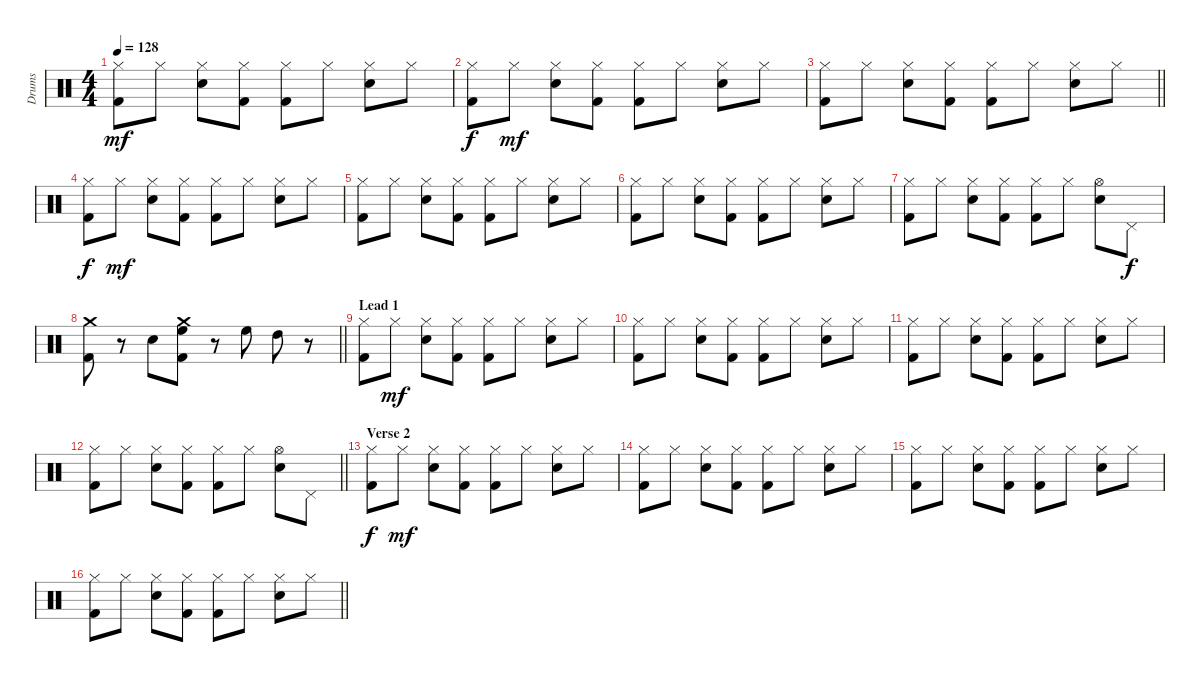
\track ("Drums" "Drums") {instrument percussion}
\staff {score}
\articulation defaults
\ts (4 4)
\tempo 128
\clef neutral
\ks c
("Hi-Hat (closed)" "Kick (hit) 2").8{dy mf} "Hi-Hat (closed)".8 ("Hi-Hat (closed)" "Snare (hit) 2").8 ("Hi-Hat (closed)" "Kick (hit) 2").8 ("Hi-Hat (closed)" "Kick (hit) 2").8 "Hi-Hat (closed)".8 ("Hi-Hat (closed)" "Snare (hit) 2").8 "Hi-Hat (closed)".8 |
("Hi-Hat (closed)" "Kick (hit) 2").8{dy f} "Hi-Hat (closed)".8{dy mf} ("Hi-Hat (closed)" "Snare (hit) 2").8 ("Hi-Hat (closed)" "Kick (hit) 2").8 ("Hi-Hat (closed)" "Kick (hit) 2").8 "Hi-Hat (closed)".8 ("Hi-Hat (closed)" "Snare (hit) 2").8 "Hi-Hat (closed)".8 |
\barLineRight lightlight
("Hi-Hat (closed)" "Kick (hit) 2").8 "Hi-Hat (closed)".8 ("Hi-Hat (closed)" "Snare (hit) 2").8 ("Hi-Hat (closed)" "Kick (hit) 2").8 ("Hi-Hat (closed)" "Kick (hit) 2").8 "Hi-Hat (closed)".8 ("Hi-Hat (closed)" "Snare (hit) 2").8 "Hi-Hat (closed)".8 |
("Hi-Hat (closed)" "Kick (hit) 2").8{dy f} "Hi-Hat (closed)".8{dy mf} ("Hi-Hat (closed)" "Snare (hit) 2").8 ("Hi-Hat (closed)" "Kick (hit) 2").8 ("Hi-Hat (closed)" "Kick (hit) 2").8 "Hi-Hat (closed)".8 ("Hi-Hat (closed)" "Snare (hit) 2").8 "Hi-Hat (closed)".8 |
("Hi-Hat (closed)" "Kick (hit) 2").8 "Hi-Hat (closed)".8 ("Hi-Hat (closed)" "Snare (hit) 2").8 ("Hi-Hat (closed)" "Kick (hit) 2").8 ("Hi-Hat (closed)" "Kick (hit) 2").8 "Hi-Hat (closed)".8 ("Hi-Hat (closed)" "Snare (hit) 2").8 "Hi-Hat (closed)".8 |
("Hi-Hat (closed)" "Kick (hit) 2").8 "Hi-Hat (closed)".8 ("Hi-Hat (closed)" "Snare (hit) 2").8 ("Hi-Hat (closed)" "Kick (hit) 2").8 ("Hi-Hat (closed)" "Kick (hit) 2").8 "Hi-Hat (closed)".8 ("Hi-Hat (closed)" "Snare (hit) 2").8 "Hi-Hat (closed)".8 |
("Hi-Hat (closed)" "Kick (hit) 2").8 "Hi-Hat (closed)".8 ("Hi-Hat (closed)" "Snare (hit) 2").8 ("Hi-Hat (closed)" "Kick (hit) 2").8 ("Hi-Hat (closed)" "Kick (hit) 2").8 "Hi-Hat (closed)".8 ("Hi-Hat (open)" "Snare (hit) 2").8 "Pedal Hi-Hat (hit)".8{dy f} |
\barLineRight lightlight
("Crash medium (hit)" "Kick (hit) 2").8 r.8 "Snare (hit) 2".8 ("Crash medium (hit)" "High Floor Tom (hit)" "Kick (hit) 2").8 r.8 "High Floor Tom (hit)".8 "High Tom (hit)".8 r.8 |
\section ("" "Lead 1")
("Hi-Hat (closed)" "Kick (hit) 2").8 "Hi-Hat (closed)".8{dy mf} ("Hi-Hat (closed)" "Snare (hit) 2").8 ("Hi-Hat (closed)" "Kick (hit) 2").8 ("Hi-Hat (closed)" "Kick (hit) 2").8 "Hi-Hat (closed)".8 ("Hi-Hat (closed)" "Snare (hit) 2").8 "Hi-Hat (closed)".8 |
("Hi-Hat (closed)" "Kick (hit) 2").8 "Hi-Hat (closed)".8 ("Hi-Hat (closed)" "Snare (hit) 2").8 ("Hi-Hat (closed)" "Kick (hit) 2").8 ("Hi-Hat (closed)" "Kick (hit) 2").8 "Hi-Hat (closed)".8 ("Hi-Hat (closed)" "Snare (hit) 2").8 "Hi-Hat (closed)".8 |
("Hi-Hat (closed)" "Kick (hit) 2").8 "Hi-Hat (closed)".8 ("Hi-Hat (closed)" "Snare (hit) 2").8 ("Hi-Hat (closed)" "Kick (hit) 2").8 ("Hi-Hat (closed)" "Kick (hit) 2").8 "Hi-Hat (closed)".8 ("Hi-Hat (closed)" "Snare (hit) 2").8 "Hi-Hat (closed)".8 |
\barLineRight lightlight
("Hi-Hat (closed)" "Kick (hit) 2").8 "Hi-Hat (closed)".8 ("Hi-Hat (closed)" "Snare (hit) 2").8 ("Hi-Hat (closed)" "Kick (hit) 2").8 ("Hi-Hat (closed)" "Kick (hit) 2").8 "Hi-Hat (closed)".8 ("Hi-Hat (open)" "Snare (hit) 2").8 "Pedal Hi-Hat (hit)".8 |
\section ("" "Verse 2")
("Hi-Hat (closed)" "Kick (hit) 2").8{dy f} "Hi-Hat (closed)".8{dy mf} ("Hi-Hat (closed)" "Snare (hit) 2").8 ("Hi-Hat (closed)" "Kick (hit) 2").8 ("Hi-Hat (closed)" "Kick (hit) 2").8 "Hi-Hat (closed)".8 ("Hi-Hat (closed)" "Snare (hit) 2").8 "Hi-Hat (closed)".8 |
("Hi-Hat (closed)" "Kick (hit) 2").8 "Hi-Hat (closed)".8 ("Hi-Hat (closed)" "Snare (hit) 2").8 ("Hi-Hat (closed)" "Kick (hit) 2").8 ("Hi-Hat (closed)" "Kick (hit) 2").8 "Hi-Hat (closed)".8 ("Hi-Hat (closed)" "Snare (hit) 2").8 "Hi-Hat (closed)".8 |
("Hi-Hat (closed)" "Kick (hit) 2").8 "Hi-Hat (closed)".8 ("Hi-Hat (closed)" "Snare (hit) 2").8 ("Hi-Hat (closed)" "Kick (hit) 2").8 ("Hi-Hat (closed)" "Kick (hit) 2").8 "Hi-Hat (closed)".8 ("Hi-Hat (closed)" "Snare (hit) 2").8 "Hi-Hat (closed)".8 |
\barLineRight lightlight
("Hi-Hat (closed)" "Kick (hit) 2").8 "Hi-Hat (closed)".8 ("Hi-Hat (closed)" "Snare (hit) 2").8 ("Hi-Hat (closed)" "Kick (hit) 2").8 ("Hi-Hat (closed)" "Kick (hit) 2").8 "Hi-Hat (closed)".8 ("Hi-Hat (closed)" "Snare (hit) 2").8 "Hi-Hat (closed)".8
